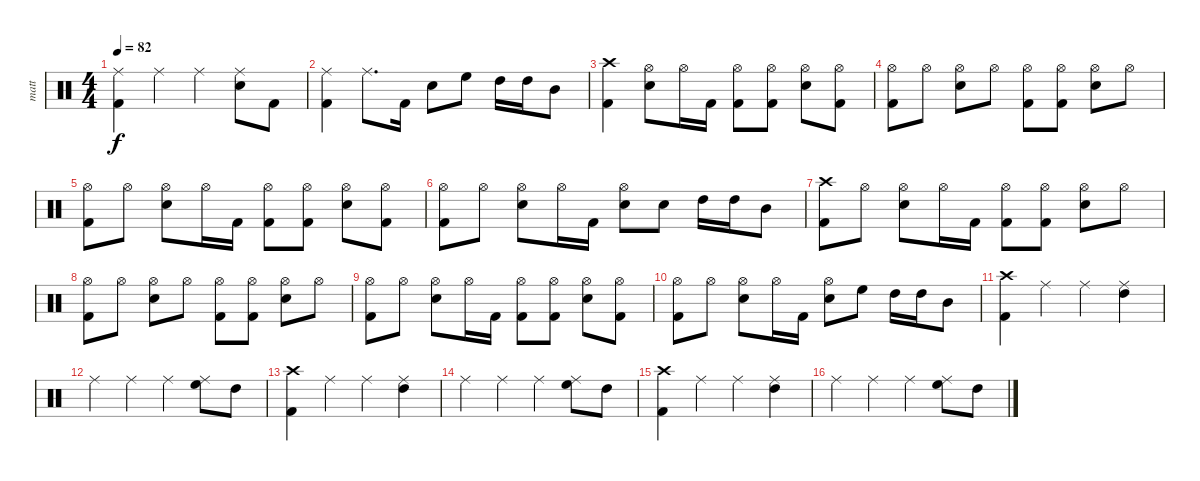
\track ("matt" "matt") {instrument percussion}
\staff {score}
\articulation defaults
\ts (4 4)
\tempo 82
\clef neutral
\ks c
("Ride (middle)" "Kick (hit) 2").4{dy f} "Ride (middle)".4 "Ride (middle)".4 ("Ride (middle)" "Electric Snare (hit)").8 "Kick (hit) 2".8 |
("Ride (middle)" "Kick (hit) 2").4 "Ride (middle)".8{d} "Kick (hit) 2".16 "Electric Snare (hit)".8 "High Floor Tom (hit)".8 "High Tom (hit)".16 "High Tom (hit)".16 "Mid Tom (hit)".8 |
("Crash high (hit)" "Kick (hit) 2").4 ("Hi-Hat (open)" "Electric Snare (hit)").8 "Hi-Hat (open)".16 "Kick (hit) 2".16 ("Hi-Hat (open)" "Kick (hit) 2").8 ("Hi-Hat (open)" "Kick (hit) 2").8 ("Hi-Hat (open)" "Electric Snare (hit)").8 ("Hi-Hat (open)" "Kick (hit) 2").8 |
("Hi-Hat (open)" "Kick (hit) 2").8 "Hi-Hat (open)".8 ("Hi-Hat (open)" "Electric Snare (hit)").8 "Hi-Hat (open)".8 ("Hi-Hat (open)" "Kick (hit) 2").8 ("Hi-Hat (open)" "Kick (hit) 2").8 ("Hi-Hat (open)" "Electric Snare (hit)").8 "Hi-Hat (open)".8 |
("Hi-Hat (open)" "Kick (hit) 2").8 "Hi-Hat (open)".8 ("Hi-Hat (open)" "Electric Snare (hit)").8 "Hi-Hat (open)".16 "Kick (hit) 2".16 ("Hi-Hat (open)" "Kick (hit) 2").8 ("Hi-Hat (open)" "Kick (hit) 2").8 ("Hi-Hat (open)" "Electric Snare (hit)").8 ("Hi-Hat (open)" "Kick (hit) 2").8 |
("Hi-Hat (open)" "Kick (hit) 2").8 "Hi-Hat (open)".8 ("Hi-Hat (open)" "Electric Snare (hit)").8 "Hi-Hat (open)".16 "Kick (hit) 2".16 ("Hi-Hat (open)" "Electric Snare (hit)").8 "Electric Snare (hit)".8 "High Tom (hit)".16 "High Tom (hit)".16 "Mid Tom (hit)".8 |
("Crash high (hit)" "Kick (hit) 2").8 "Hi-Hat (open)".8 ("Hi-Hat (open)" "Electric Snare (hit)").8 "Hi-Hat (open)".16 "Kick (hit) 2".16 ("Hi-Hat (open)" "Kick (hit) 2").8 ("Hi-Hat (open)" "Kick (hit) 2").8 ("Hi-Hat (open)" "Electric Snare (hit)").8 "Hi-Hat (open)".8 |
("Hi-Hat (open)" "Kick (hit) 2").8 "Hi-Hat (open)".8 ("Hi-Hat (open)" "Electric Snare (hit)").8 "Hi-Hat (open)".8 ("Hi-Hat (open)" "Kick (hit) 2").8 ("Hi-Hat (open)" "Kick (hit) 2").8 ("Hi-Hat (open)" "Electric Snare (hit)").8 "Hi-Hat (open)".8 |
("Hi-Hat (open)" "Kick (hit) 2").8 "Hi-Hat (open)".8 ("Hi-Hat (open)" "Electric Snare (hit)").8 "Hi-Hat (open)".16 "Kick (hit) 2".16 ("Hi-Hat (open)" "Kick (hit) 2").8 ("Hi-Hat (open)" "Kick (hit) 2").8 ("Hi-Hat (open)" "Electric Snare (hit)").8 ("Hi-Hat (open)" "Kick (hit) 2").8 |
("Hi-Hat (open)" "Kick (hit) 2").8 "Hi-Hat (open)".8 ("Hi-Hat (open)" "Electric Snare (hit)").8 "Hi-Hat (open)".16 "Kick (hit) 2".16 ("Hi-Hat (open)" "Electric Snare (hit)").8 "High Floor Tom (hit)".8 "High Tom (hit)".16 "High Tom (hit)".16 "Mid Tom (hit)".8 |
("Crash high (hit)" "Kick (hit) 2").4 "Ride (middle)".4 "Ride (middle)".4 ("Ride (middle)" "High Tom (hit)").4 |
"Ride (middle)".4 "Ride (middle)".4 "Ride (middle)".4 ("Ride (middle)" "High Floor Tom (hit)").8 "High Tom (hit)".8 |
("Crash high (hit)" "Kick (hit) 2").4 "Ride (middle)".4 "Ride (middle)".4 ("Ride (middle)" "High Tom (hit)").4 |
"Ride (middle)".4 "Ride (middle)".4 "Ride (middle)".4 ("Ride (middle)" "High Floor Tom (hit)").8 "High Tom (hit)".8 |
("Crash high (hit)" "Kick (hit) 2").4 "Ride (middle)".4 "Ride (middle)".4 ("Ride (middle)" "High Tom (hit)").4 |
"Ride (middle)".4 "Ride (middle)".4 "Ride (middle)".4 ("Ride (middle)" "High Floor Tom (hit)").8 "High Tom (hit)".8
